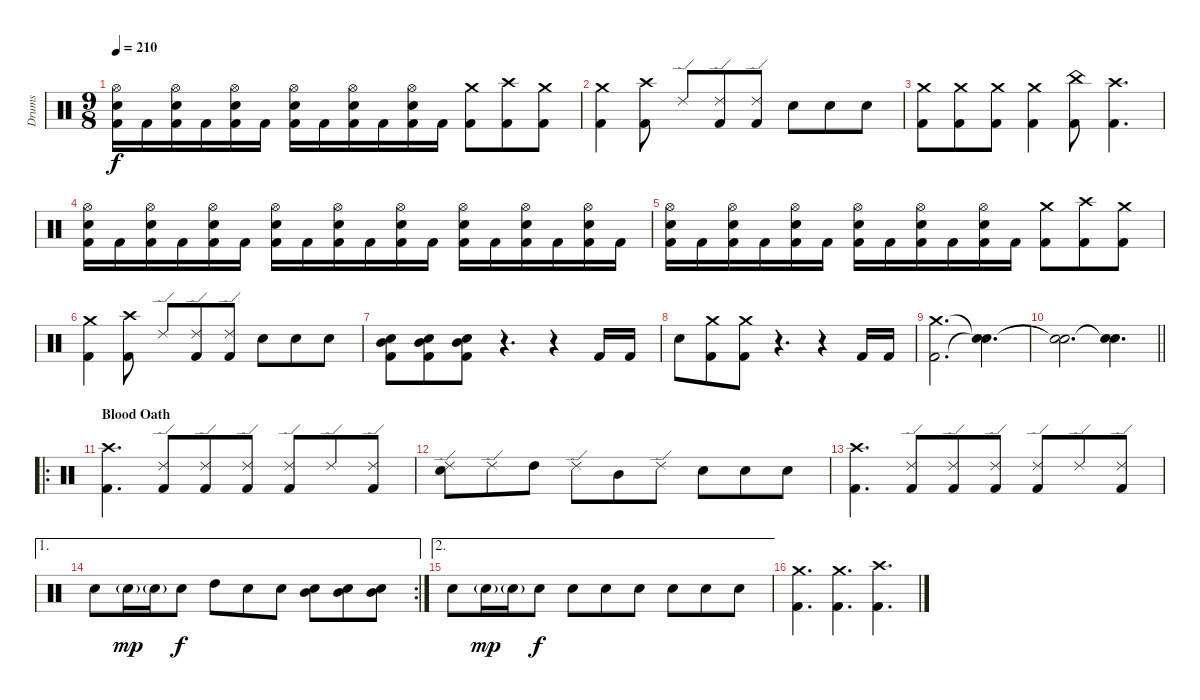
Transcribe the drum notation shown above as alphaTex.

\track ("Drums" "Drums") {instrument percussion}
\staff {score}
\articulation defaults
\ts (9 8)
\tempo 210
\clef neutral
\ks c
("Hi-Hat (open)" "Electric Snare (hit)" "Kick (hit) 2").16{dy f} "Kick (hit) 2".16 ("Hi-Hat (open)" "Electric Snare (hit)" "Kick (hit) 2").16 "Kick (hit) 2".16 ("Hi-Hat (open)" "Electric Snare (hit)" "Kick (hit) 2").16 "Kick (hit) 2".16 ("Hi-Hat (open)" "Electric Snare (hit)" "Kick (hit) 2").16 "Kick (hit) 2".16 ("Hi-Hat (open)" "Electric Snare (hit)" "Kick (hit) 2").16 "Kick (hit) 2".16 ("Hi-Hat (open)" "Electric Snare (hit)" "Kick (hit) 2").16 "Kick (hit) 2".16 ("Crash medium (hit)" "Kick (hit) 2").8 ("Crash high (hit)" "Kick (hit) 2").8 ("Crash medium (hit)" "Kick (hit) 2").8 |
("Crash medium (hit)" "Kick (hit) 2").4 ("Crash high (hit)" "Kick (hit) 2").8 "Ride (edge) 2".8 ("Ride (edge) 2" "Kick (hit) 2").8 ("Ride (edge) 2" "Kick (hit) 2").8 "Electric Snare (hit)".8 "Electric Snare (hit)".8 "Electric Snare (hit)".8 |
("Crash medium (hit)" "Kick (hit) 2").8 ("Crash medium (hit)" "Kick (hit) 2").8 ("Crash medium (hit)" "Kick (hit) 2").8 ("Crash medium (hit)" "Kick (hit) 2").4 ("China (hit)" "Kick (hit) 2").8 ("Crash high (hit)" "Kick (hit) 2").4{d} |
("Hi-Hat (open)" "Electric Snare (hit)" "Kick (hit) 2").16 "Kick (hit) 2".16 ("Hi-Hat (open)" "Electric Snare (hit)" "Kick (hit) 2").16 "Kick (hit) 2".16 ("Hi-Hat (open)" "Electric Snare (hit)" "Kick (hit) 2").16 "Kick (hit) 2".16 ("Hi-Hat (open)" "Electric Snare (hit)" "Kick (hit) 2").16 "Kick (hit) 2".16 ("Hi-Hat (open)" "Electric Snare (hit)" "Kick (hit) 2").16 "Kick (hit) 2".16 ("Hi-Hat (open)" "Electric Snare (hit)" "Kick (hit) 2").16 "Kick (hit) 2".16 ("Hi-Hat (open)" "Electric Snare (hit)" "Kick (hit) 2").16 "Kick (hit) 2".16 ("Hi-Hat (open)" "Electric Snare (hit)" "Kick (hit) 2").16 "Kick (hit) 2".16 ("Hi-Hat (open)" "Electric Snare (hit)" "Kick (hit) 2").16 "Kick (hit) 2".16 |
("Hi-Hat (open)" "Electric Snare (hit)" "Kick (hit) 2").16 "Kick (hit) 2".16 ("Hi-Hat (open)" "Electric Snare (hit)" "Kick (hit) 2").16 "Kick (hit) 2".16 ("Hi-Hat (open)" "Electric Snare (hit)" "Kick (hit) 2").16 "Kick (hit) 2".16 ("Hi-Hat (open)" "Electric Snare (hit)" "Kick (hit) 2").16 "Kick (hit) 2".16 ("Hi-Hat (open)" "Electric Snare (hit)" "Kick (hit) 2").16 "Kick (hit) 2".16 ("Hi-Hat (open)" "Electric Snare (hit)" "Kick (hit) 2").16 "Kick (hit) 2".16 ("Crash medium (hit)" "Kick (hit) 2").8 ("Crash high (hit)" "Kick (hit) 2").8 ("Crash medium (hit)" "Kick (hit) 2").8 |
("Crash medium (hit)" "Kick (hit) 2").4 ("Crash high (hit)" "Kick (hit) 2").8 "Ride (edge) 2".8 ("Ride (edge) 2" "Kick (hit) 2").8 ("Ride (edge) 2" "Kick (hit) 2").8 "Electric Snare (hit)".8 "Electric Snare (hit)".8 "Electric Snare (hit)".8 |
("Mid Tom (hit)" "Electric Snare (hit)" "Kick (hit) 2").8 ("Mid Tom (hit)" "Electric Snare (hit)" "Kick (hit) 2").8 ("Mid Tom (hit)" "Electric Snare (hit)" "Kick (hit) 2").8 r.4{d} r.4 "Kick (hit) 2".16 "Kick (hit) 2".16 |
"Electric Snare (hit)".8 ("Crash medium (hit)" "Kick (hit) 2").8 ("Crash medium (hit)" "Kick (hit) 2").8 r.4{d} r.4 "Kick (hit) 2".16 "Kick (hit) 2".16 |
("Crash medium (hit)" "Kick (hit) 2").2{d} ("Snare (hit)"{t} "Snare (hit)"{t}).4{d} |
\barLineRight lightlight
("Snare (hit)"{t} "Snare (hit)"{t}).2{d} ("Snare (hit)"{t} "Snare (hit)"{t}).4{d} |
\ro
\section ("" "Blood Oath")
("Crash high (hit)" "Kick (hit) 2").4{d} ("Ride (edge) 2" "Kick (hit) 2").8 ("Ride (edge) 2" "Kick (hit) 2").8 ("Ride (edge) 2" "Kick (hit) 2").8 ("Ride (edge) 2" "Kick (hit) 2").8 "Ride (edge) 2".8 ("Ride (edge) 2" "Kick (hit) 2").8 |
("Ride (edge) 2" "Electric Snare (hit)").8 "Ride (edge) 2".8 "High Tom (hit)".8 "Ride (edge) 2".8 "Mid Tom (hit)".8 "Ride (edge) 2".8 "Electric Snare (hit)".8 "Electric Snare (hit)".8 "Electric Snare (hit)".8 |
("Crash high (hit)" "Kick (hit) 2").4{d} ("Ride (edge) 2" "Kick (hit) 2").8 ("Ride (edge) 2" "Kick (hit) 2").8 ("Ride (edge) 2" "Kick (hit) 2").8 ("Ride (edge) 2" "Kick (hit) 2").8 "Ride (edge) 2".8 ("Ride (edge) 2" "Kick (hit) 2").8 |
\ae 1
\rc 2 "Electric Snare (hit)".8 "Electric Snare (hit)"{g}.16{dy mp} "Electric Snare (hit)"{g}.16 "Electric Snare (hit)".8{dy f} "High Tom (hit)".8 "Electric Snare (hit)".8 "Electric Snare (hit)".8
("Mid Tom (hit)" "Electric Snare (hit)").8 ("Mid Tom (hit)" "Electric Snare (hit)").8 ("Mid Tom (hit)" "Electric Snare (hit)").8 |
\ae 2 "Electric Snare (hit)".8 "Electric Snare (hit)"{g}.16{dy mp} "Electric Snare (hit)"{g}.16 "Electric Snare (hit)".8{dy f} "Electric Snare (hit)".8 "Electric Snare (hit)".8 "Electric Snare (hit)".8 "Electric Snare (hit)".8 "Electric Snare (hit)".8 "Electric Snare (hit)".8
|
("Crash medium (hit)" "Kick (hit) 2").4{d} ("Crash medium (hit)" "Kick (hit) 2").4{d} ("Crash high (hit)" "Kick (hit) 2").4{d}
